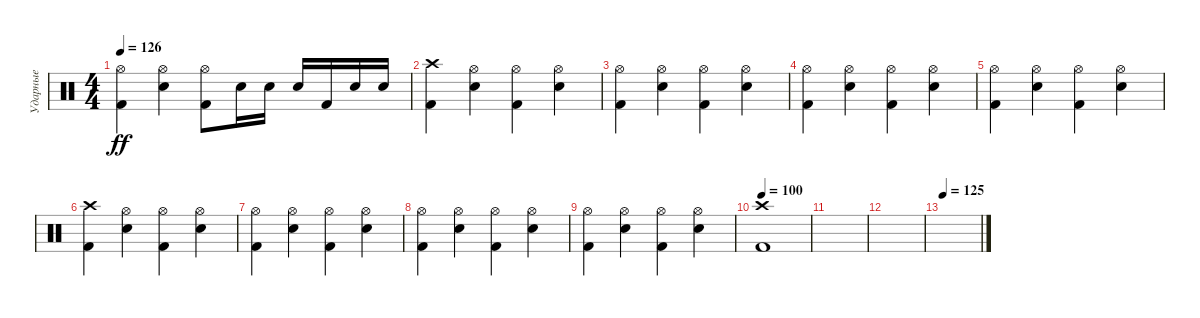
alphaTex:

\track ("Ударные" "Ударные") {instrument percussion}
\staff {score}
\articulation defaults
\ts (4 4)
\tempo 126
\clef neutral
\ks c
("Hi-Hat (open)" "Kick (hit) 2").4{dy ff} ("Hi-Hat (open)" "Electric Snare (hit)").4 ("Kick (hit) 2" "Hi-Hat (open)").8 "Electric Snare (hit)".16 "Electric Snare (hit)".16 "Electric Snare (hit)".16 "Kick (hit) 2".16 "Electric Snare (hit)".16 "Electric Snare (hit)".16 |
("Crash high (hit)" "Kick (hit) 2").4 ("Hi-Hat (open)" "Electric Snare (hit)").4 ("Hi-Hat (open)" "Kick (hit) 2").4 ("Hi-Hat (open)" "Electric Snare (hit)").4 |
("Hi-Hat (open)" "Kick (hit) 2").4 ("Hi-Hat (open)" "Electric Snare (hit)").4 ("Hi-Hat (open)" "Kick (hit) 2").4 ("Hi-Hat (open)" "Electric Snare (hit)").4 |
("Hi-Hat (open)" "Kick (hit) 2").4 ("Hi-Hat (open)" "Electric Snare (hit)").4 ("Hi-Hat (open)" "Kick (hit) 2").4 ("Hi-Hat (open)" "Electric Snare (hit)").4 |
("Hi-Hat (open)" "Kick (hit) 2").4 ("Hi-Hat (open)" "Electric Snare (hit)").4 ("Hi-Hat (open)" "Kick (hit) 2").4 ("Hi-Hat (open)" "Electric Snare (hit)").4 |
("Crash high (hit)" "Kick (hit) 2").4 ("Hi-Hat (open)" "Electric Snare (hit)").4 ("Hi-Hat (open)" "Kick (hit) 2").4 ("Hi-Hat (open)" "Electric Snare (hit)").4 |
("Hi-Hat (open)" "Kick (hit) 2").4 ("Hi-Hat (open)" "Electric Snare (hit)").4 ("Hi-Hat (open)" "Kick (hit) 2").4 ("Hi-Hat (open)" "Electric Snare (hit)").4 |
("Hi-Hat (open)" "Kick (hit) 2").4 ("Hi-Hat (open)" "Electric Snare (hit)").4 ("Hi-Hat (open)" "Kick (hit) 2").4 ("Hi-Hat (open)" "Electric Snare (hit)").4 |
("Hi-Hat (open)" "Kick (hit) 2").4 ("Hi-Hat (open)" "Electric Snare (hit)").4 ("Hi-Hat (open)" "Kick (hit) 2").4 ("Hi-Hat (open)" "Electric Snare (hit)").4 |
\tempo 100
("Kick (hit) 2" "Crash high (hit)").1 |
|
|
\tempo 125
